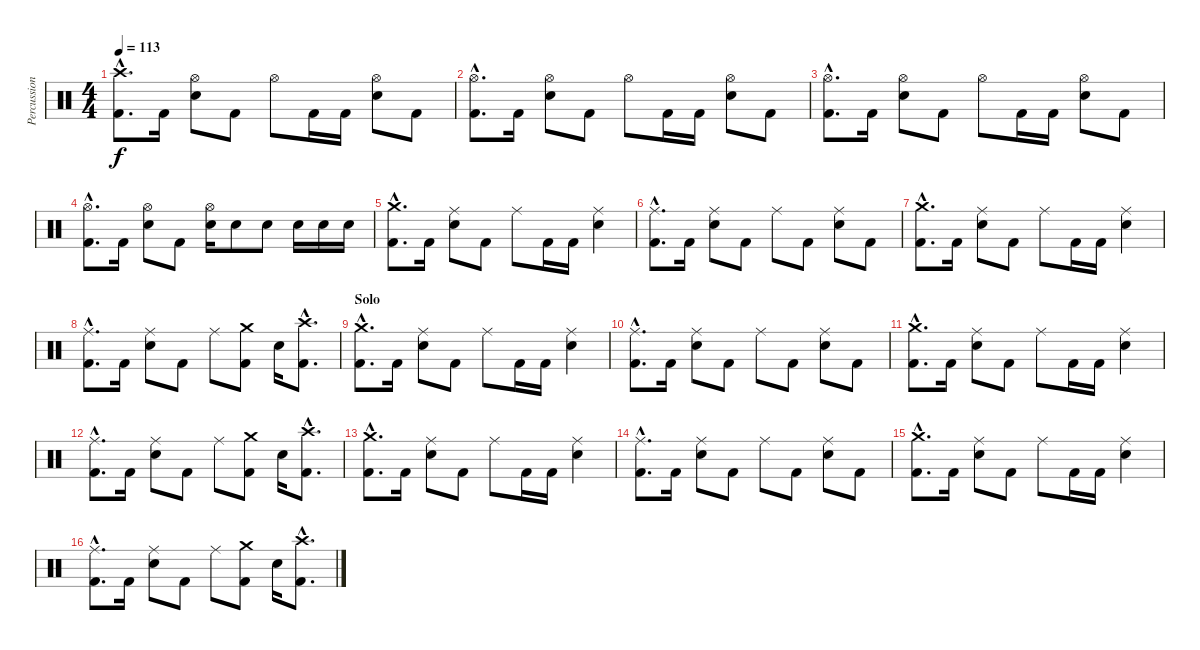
\track ("Percussion" "Percussion") {instrument percussion}
\staff {score}
\articulation defaults
\ts (4 4)
\tempo 113
\clef neutral
\ks c
("Kick (hit) 2"{hac} "Crash high (hit)"{hac}).8{d dy f} "Kick (hit) 2".16 ("Electric Snare (hit)" "Hi-Hat (open)").8 "Kick (hit) 2".8 "Hi-Hat (open)".8 "Kick (hit) 2".16 "Kick (hit) 2".16 ("Electric Snare (hit)" "Hi-Hat (open)").8 "Kick (hit) 2".8 |
("Kick (hit) 2"{hac} "Hi-Hat (open)"{hac}).8{d} "Kick (hit) 2".16 ("Electric Snare (hit)" "Hi-Hat (open)").8 "Kick (hit) 2".8 "Hi-Hat (open)".8 "Kick (hit) 2".16 "Kick (hit) 2".16 ("Electric Snare (hit)" "Hi-Hat (open)").8 "Kick (hit) 2".8 |
("Kick (hit) 2"{hac} "Hi-Hat (open)"{hac}).8{d} "Kick (hit) 2".16 ("Electric Snare (hit)" "Hi-Hat (open)").8 "Kick (hit) 2".8 "Hi-Hat (open)".8 "Kick (hit) 2".16 "Kick (hit) 2".16 ("Electric Snare (hit)" "Hi-Hat (open)").8 "Kick (hit) 2".8 |
("Kick (hit) 2"{hac} "Hi-Hat (open)"{hac}).8{d} "Kick (hit) 2".16 ("Electric Snare (hit)" "Hi-Hat (open)").8 "Kick (hit) 2".8 ("Electric Snare (hit)" "Hi-Hat (open)").16 "Electric Snare (hit)".8 "Electric Snare (hit)".8 "Electric Snare (hit)".16 "Electric Snare (hit)".16 "Electric Snare (hit)".16 |
("Kick (hit) 2"{hac} "Crash medium (hit)"{hac}).8{d} "Kick (hit) 2".16 ("Electric Snare (hit)" "Ride (middle)").8 "Kick (hit) 2".8 "Ride (middle)".8 "Kick (hit) 2".16 "Kick (hit) 2".16 ("Electric Snare (hit)" "Ride (middle)").4 |
("Kick (hit) 2"{hac} "Ride (middle)"{hac}).8{d} "Kick (hit) 2".16 ("Electric Snare (hit)" "Ride (middle)").8 "Kick (hit) 2".8 "Ride (middle)".8 "Kick (hit) 2".8 ("Electric Snare (hit)" "Ride (middle)").8 "Kick (hit) 2".8 |
("Kick (hit) 2"{hac} "Crash medium (hit)"{hac}).8{d} "Kick (hit) 2".16 ("Electric Snare (hit)" "Ride (middle)").8 "Kick (hit) 2".8 "Ride (middle)".8 "Kick (hit) 2".16 "Kick (hit) 2".16 ("Electric Snare (hit)" "Ride (middle)").4 |
("Kick (hit) 2"{hac} "Ride (middle)"{hac}).8{d} "Kick (hit) 2".16 ("Electric Snare (hit)" "Ride (middle)").8 "Kick (hit) 2".8 "Ride (middle)".8 ("Kick (hit) 2" "Crash medium (hit)").8 "Electric Snare (hit)".16 ("Kick (hit) 2"{hac} "Crash high (hit)"{hac}).8{d} |
\section ("" "Solo")
("Kick (hit) 2"{hac} "Crash medium (hit)"{hac}).8{d} "Kick (hit) 2".16 ("Electric Snare (hit)" "Ride (middle)").8 "Kick (hit) 2".8 "Ride (middle)".8 "Kick (hit) 2".16 "Kick (hit) 2".16 ("Electric Snare (hit)" "Ride (middle)").4 |
("Kick (hit) 2"{hac} "Ride (middle)"{hac}).8{d} "Kick (hit) 2".16 ("Electric Snare (hit)" "Ride (middle)").8 "Kick (hit) 2".8 "Ride (middle)".8 "Kick (hit) 2".8 ("Electric Snare (hit)" "Ride (middle)").8 "Kick (hit) 2".8 |
("Kick (hit) 2"{hac} "Crash medium (hit)"{hac}).8{d} "Kick (hit) 2".16 ("Electric Snare (hit)" "Ride (middle)").8 "Kick (hit) 2".8 "Ride (middle)".8 "Kick (hit) 2".16 "Kick (hit) 2".16 ("Electric Snare (hit)" "Ride (middle)").4 |
("Kick (hit) 2"{hac} "Ride (middle)"{hac}).8{d} "Kick (hit) 2".16 ("Electric Snare (hit)" "Ride (middle)").8 "Kick (hit) 2".8 "Ride (middle)".8 ("Kick (hit) 2" "Crash medium (hit)").8 "Electric Snare (hit)".16 ("Kick (hit) 2"{hac} "Crash high (hit)"{hac}).8{d} |
("Kick (hit) 2"{hac} "Crash medium (hit)"{hac}).8{d} "Kick (hit) 2".16 ("Electric Snare (hit)" "Ride (middle)").8 "Kick (hit) 2".8 "Ride (middle)".8 "Kick (hit) 2".16 "Kick (hit) 2".16 ("Electric Snare (hit)" "Ride (middle)").4 |
("Kick (hit) 2"{hac} "Ride (middle)"{hac}).8{d} "Kick (hit) 2".16 ("Electric Snare (hit)" "Ride (middle)").8 "Kick (hit) 2".8 "Ride (middle)".8 "Kick (hit) 2".8 ("Electric Snare (hit)" "Ride (middle)").8 "Kick (hit) 2".8 |
("Kick (hit) 2"{hac} "Crash medium (hit)"{hac}).8{d} "Kick (hit) 2".16 ("Electric Snare (hit)" "Ride (middle)").8 "Kick (hit) 2".8 "Ride (middle)".8 "Kick (hit) 2".16 "Kick (hit) 2".16 ("Electric Snare (hit)" "Ride (middle)").4 |
("Kick (hit) 2"{hac} "Ride (middle)"{hac}).8{d} "Kick (hit) 2".16 ("Electric Snare (hit)" "Ride (middle)").8 "Kick (hit) 2".8 "Ride (middle)".8 ("Kick (hit) 2" "Crash medium (hit)").8 "Electric Snare (hit)".16 ("Kick (hit) 2"{hac} "Crash high (hit)"{hac}).8{d}
